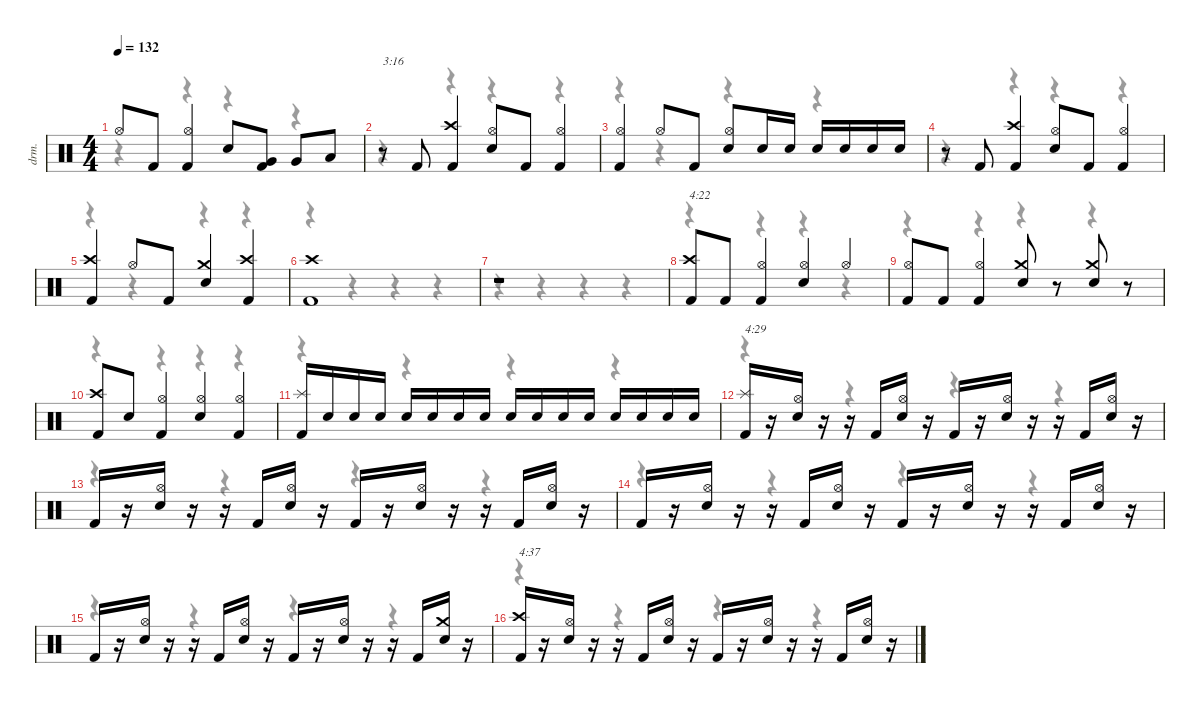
\defaultSystemsLayout 4
\hideDynamics
\bracketExtendMode nobrackets
\otherSystemsTrackNameOrientation horizontal
\track ("Drums" "drm.") {instrument percussion}
\staff {score}
\articulation defaults
\voice
\ts (4 4)
\tempo 132
\clef neutral
\ks c "Hi-Hat (open)".8{dy f} "Kick (hit) 2".8{dy fff}
("Hi-Hat (open)" "Kick (hit) 2").4{dy f} "Snare (hit) 2".8{dy fff} ("Very Low Tom (hit)" "Kick (hit) 2").8 "Very Low Tom (hit)".8 "Low Floor Tom (hit)".8 |
r.8{txt "3:16"} "Kick (hit) 2".8 ("Crash high (hit)" "Kick (hit) 2").4{dy f} ("Hi-Hat (open)" "Snare (hit) 2").8 "Kick (hit) 2".8{dy fff} ("Hi-Hat (open)" "Kick (hit) 2").4{dy f} |
("Hi-Hat (open)" "Kick (hit) 2").4 "Hi-Hat (open)".8 "Kick (hit) 2".8{dy fff} ("Hi-Hat (open)" "Snare (hit) 2").8{dy f} "Snare (hit) 2".16{dy fff} "Snare (hit) 2".16 "Snare (hit) 2".16 "Snare (hit) 2".16 "Snare (hit) 2".16 "Snare (hit) 2".16 |
r.8 "Kick (hit) 2".8 ("Crash high (hit)" "Kick (hit) 2").4{dy f} ("Hi-Hat (open)" "Snare (hit) 2").8 "Kick (hit) 2".8{dy fff} ("Hi-Hat (open)" "Kick (hit) 2").4{dy f} |
("Crash high (hit)" "Kick (hit) 2").4 "Hi-Hat (open)".8 "Kick (hit) 2".8{dy fff} ("Crash medium (hit)" "Snare (hit) 2").4{dy f} ("Crash high (hit)" "Kick (hit) 2").4 |
("Crash high (hit)" "Kick (hit) 2").1 |
r.1 |
("Crash high (hit)" "Kick (hit) 2").8{txt "4:22"} "Kick (hit) 2".8{dy fff} ("Hi-Hat (open)" "Kick (hit) 2").4{dy f} ("Hi-Hat (open)" "Snare (hit) 2").4 "Hi-Hat (open)".4 |
("Hi-Hat (open)" "Kick (hit) 2").8 "Kick (hit) 2".8{dy fff} ("Hi-Hat (open)" "Kick (hit) 2").4{dy f} ("Crash medium (hit)" "Snare (hit) 2").8 r.8 ("Crash medium (hit)" "Snare (hit) 2").8 r.8 |
("Crash high (hit)" "Kick (hit) 2").8 "Snare (hit) 2".8{dy fff} ("Hi-Hat (open)" "Kick (hit) 2").4{dy f} ("Hi-Hat (open)" "Snare (hit) 2").4 ("Hi-Hat (open)" "Kick (hit) 2").4 |
("Splash (hit)" "Kick (hit) 2").16 "Snare (hit) 2".16{dy fff} "Snare (hit) 2".16 "Snare (hit) 2".16 "Snare (hit) 2".16 "Snare (hit) 2".16 "Snare (hit) 2".16 "Snare (hit) 2".16 "Snare (hit) 2".16 "Snare (hit) 2".16 "Snare (hit) 2".16 "Snare (hit) 2".16 "Snare (hit) 2".16 "Snare (hit) 2".16 "Snare (hit) 2".16 "Snare (hit) 2".16 |
("Splash (hit)" "Kick (hit) 2").16{txt "4:29" dy f} r.16 ("Hi-Hat (open)" "Snare (hit) 2").16 r.16 r.16 "Kick (hit) 2".16{dy fff} ("Hi-Hat (open)" "Snare (hit) 2").16{dy f} r.16 "Kick (hit) 2".16{dy fff} r.16 ("Hi-Hat (open)" "Snare (hit) 2").16{dy f} r.16 r.16 "Kick (hit) 2".16{dy fff} ("Hi-Hat (open)" "Snare (hit) 2").16{dy f} r.16 |
"Kick (hit) 2".16{dy fff} r.16 ("Hi-Hat (open)" "Snare (hit) 2").16{dy f} r.16 r.16 "Kick (hit) 2".16{dy fff} ("Hi-Hat (open)" "Snare (hit) 2").16{dy f} r.16 "Kick (hit) 2".16{dy fff} r.16 ("Hi-Hat (open)" "Snare (hit) 2").16{dy f} r.16 r.16 "Kick (hit) 2".16{dy fff} ("Hi-Hat (open)" "Snare (hit) 2").16{dy f} r.16 |
"Kick (hit) 2".16{dy fff} r.16 ("Hi-Hat (open)" "Snare (hit) 2").16{dy f} r.16 r.16 "Kick (hit) 2".16{dy fff} ("Hi-Hat (open)" "Snare (hit) 2").16{dy f} r.16 "Kick (hit) 2".16{dy fff} r.16 ("Hi-Hat (open)" "Snare (hit) 2").16{dy f} r.16 r.16 "Kick (hit) 2".16{dy fff} ("Hi-Hat (open)" "Snare (hit) 2").16{dy f} r.16 |
"Kick (hit) 2".16{dy fff} r.16 ("Hi-Hat (open)" "Snare (hit) 2").16{dy f} r.16 r.16 "Kick (hit) 2".16{dy fff} ("Hi-Hat (open)" "Snare (hit) 2").16{dy f} r.16 "Kick (hit) 2".16{dy fff} r.16 ("Hi-Hat (open)" "Snare (hit) 2").16{dy f} r.16 r.16 "Kick (hit) 2".16{dy fff} ("Crash medium (hit)" "Snare (hit) 2").16{dy f} r.16 |
("Crash high (hit)" "Kick (hit) 2").16{txt "4:37"} r.16 ("Hi-Hat (open)" "Snare (hit) 2").16 r.16 r.16 "Kick (hit) 2".16{dy fff} ("Hi-Hat (open)" "Snare (hit) 2").16{dy f} r.16 "Kick (hit) 2".16{dy fff} r.16 ("Hi-Hat (open)" "Snare (hit) 2").16{dy f} r.16 r.16 "Kick (hit) 2".16{dy fff} ("Hi-Hat (open)" "Snare (hit) 2").16{dy f} r.16
\voice
\clef neutral
\ottava regular
\simile none
\ks c
r.4{dy mf} r.4 r.4 r.4 |
r.4 r.4 r.4 r.4 |
r.4 r.4 r.4 r.4 |
r.4 r.4 r.4 r.4 |
r.4 r.4 r.4 r.4 |
r.4 r.4 r.4 r.4 |
r.4 r.4 r.4 r.4 |
r.4 r.4 r.4 r.4 |
r.4 r.4 r.4 r.4 |
r.4 r.4 r.4 r.4 |
r.4 r.4 r.4 r.4 |
r.4 r.4 r.4 r.4 |
r.4 r.4 r.4 r.4 |
r.4 r.4 r.4 r.4 |
r.4 r.4 r.4 r.4 |
r.4 r.4 r.4 r.4
